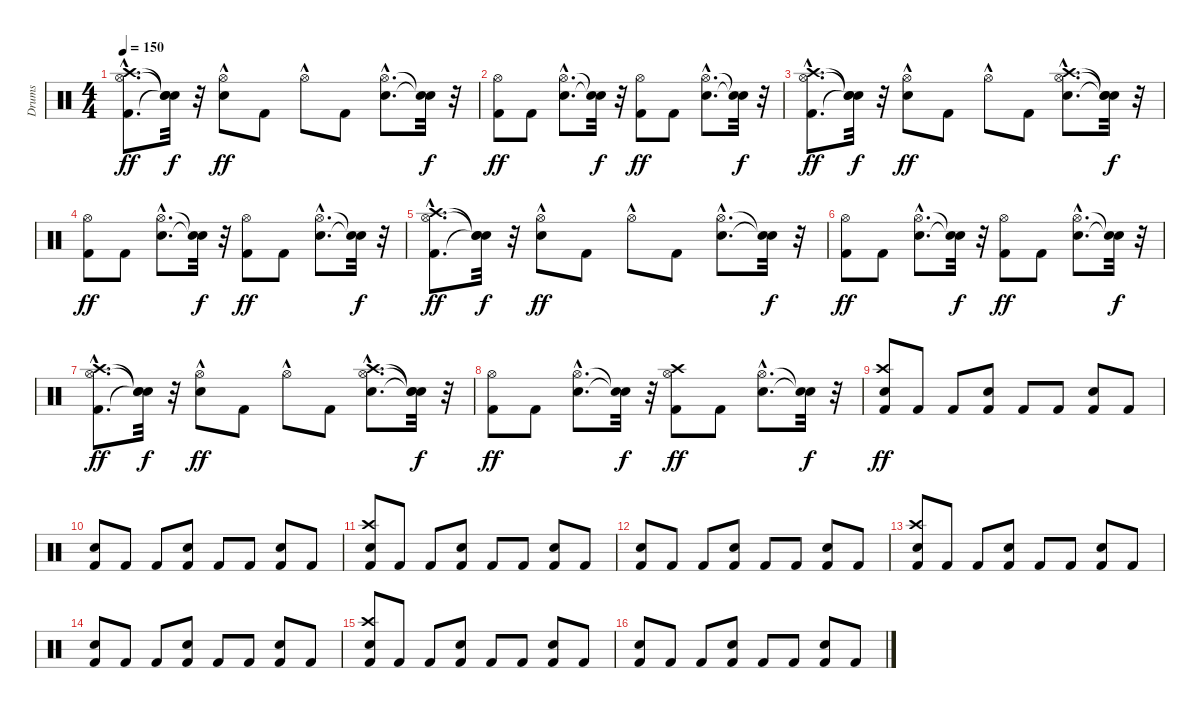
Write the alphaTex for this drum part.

\track ("Drums" "Drums") {instrument percussion}
\staff {score}
\articulation defaults
\ts (4 4)
\tempo 150
\clef neutral
\ks c
("Kick (hit) 2"{hac} "Hi-Hat (open)"{hac} "Crash high (hit)"{hac}).8{d dy ff} ("Snare (hit)"{t} "Snare (hit)"{t} "Snare (hit)"{t}).32{dy f} r.32 ("Snare (hit) 2"{hac} "Hi-Hat (open)"{hac}).8{dy ff} "Kick (hit) 2".8 "Hi-Hat (open)"{hac}.8 "Kick (hit) 2".8 ("Snare (hit) 2"{hac} "Hi-Hat (open)"{hac}).8{d} ("Snare (hit)"{t} "Snare (hit)"{t}).32{dy f} r.32 |
("Kick (hit) 2" "Hi-Hat (open)").8{dy ff} "Kick (hit) 2".8 ("Snare (hit) 2"{hac} "Hi-Hat (open)"{hac}).8{d} ("Snare (hit)"{t} "Snare (hit)"{t}).32{dy f} r.32 ("Kick (hit) 2" "Hi-Hat (open)").8{dy ff} "Kick (hit) 2".8 ("Snare (hit) 2"{hac} "Hi-Hat (open)"{hac}).8{d} ("Snare (hit)"{t} "Snare (hit)"{t}).32{dy f} r.32 |
("Kick (hit) 2"{hac} "Hi-Hat (open)"{hac} "Crash high (hit)"{hac}).8{d dy ff} ("Snare (hit)"{t} "Snare (hit)"{t} "Snare (hit)"{t}).32{dy f} r.32 ("Snare (hit) 2"{hac} "Hi-Hat (open)"{hac}).8{dy ff} "Kick (hit) 2".8 "Hi-Hat (open)"{hac}.8 "Kick (hit) 2".8 ("Snare (hit) 2"{hac} "Hi-Hat (open)"{hac} "Crash high (hit)"{hac}).8{d} ("Snare (hit)"{t} "Snare (hit)"{t} "Snare (hit)"{t}).32{dy f} r.32 |
("Kick (hit) 2" "Hi-Hat (open)").8{dy ff} "Kick (hit) 2".8 ("Snare (hit) 2"{hac} "Hi-Hat (open)"{hac}).8{d} ("Snare (hit)"{t} "Snare (hit)"{t}).32{dy f} r.32 ("Kick (hit) 2" "Hi-Hat (open)").8{dy ff} "Kick (hit) 2".8 ("Snare (hit) 2"{hac} "Hi-Hat (open)"{hac}).8{d} ("Snare (hit)"{t} "Snare (hit)"{t}).32{dy f} r.32 |
("Kick (hit) 2"{hac} "Hi-Hat (open)"{hac} "Crash high (hit)"{hac}).8{d dy ff} ("Snare (hit)"{t} "Snare (hit)"{t} "Snare (hit)"{t}).32{dy f} r.32 ("Snare (hit) 2"{hac} "Hi-Hat (open)"{hac}).8{dy ff} "Kick (hit) 2".8 "Hi-Hat (open)"{hac}.8 "Kick (hit) 2".8 ("Snare (hit) 2"{hac} "Hi-Hat (open)"{hac}).8{d} ("Snare (hit)"{t} "Snare (hit)"{t}).32{dy f} r.32 |
("Kick (hit) 2" "Hi-Hat (open)").8{dy ff} "Kick (hit) 2".8 ("Snare (hit) 2"{hac} "Hi-Hat (open)"{hac}).8{d} ("Snare (hit)"{t} "Snare (hit)"{t}).32{dy f} r.32 ("Kick (hit) 2" "Hi-Hat (open)").8{dy ff} "Kick (hit) 2".8 ("Snare (hit) 2"{hac} "Hi-Hat (open)"{hac}).8{d} ("Snare (hit)"{t} "Snare (hit)"{t}).32{dy f} r.32 |
("Kick (hit) 2"{hac} "Hi-Hat (open)"{hac} "Crash high (hit)"{hac}).8{d dy ff} ("Snare (hit)"{t} "Snare (hit)"{t} "Snare (hit)"{t}).32{dy f} r.32 ("Snare (hit) 2"{hac} "Hi-Hat (open)"{hac}).8{dy ff} "Kick (hit) 2".8 "Hi-Hat (open)"{hac}.8 "Kick (hit) 2".8 ("Snare (hit) 2"{hac} "Hi-Hat (open)"{hac} "Crash high (hit)"{hac}).8{d} ("Snare (hit)"{t} "Snare (hit)"{t} "Snare (hit)"{t}).32{dy f} r.32 |
("Kick (hit) 2" "Hi-Hat (open)").8{dy ff} "Kick (hit) 2".8 ("Snare (hit) 2"{hac} "Hi-Hat (open)"{hac}).8{d} ("Snare (hit)"{t} "Snare (hit)"{t}).32{dy f} r.32 ("Kick (hit) 2" "Hi-Hat (open)" "Crash high (hit)").8{dy ff} "Kick (hit) 2".8 ("Snare (hit) 2"{hac} "Hi-Hat (open)"{hac}).8{d} ("Snare (hit)"{t} "Snare (hit)"{t}).32{dy f} r.32 |
("Kick (hit) 2" "Snare (hit) 2" "Crash high (hit)").8{dy ff} "Kick (hit) 2".8 "Kick (hit) 2".8 ("Kick (hit) 2" "Snare (hit) 2").8 "Kick (hit) 2".8 "Kick (hit) 2".8 ("Kick (hit) 2" "Snare (hit) 2").8 "Kick (hit) 2".8 |
("Kick (hit) 2" "Snare (hit) 2").8 "Kick (hit) 2".8 "Kick (hit) 2".8 ("Kick (hit) 2" "Snare (hit) 2").8 "Kick (hit) 2".8 "Kick (hit) 2".8 ("Kick (hit) 2" "Snare (hit) 2").8 "Kick (hit) 2".8 |
("Kick (hit) 2" "Snare (hit) 2" "Crash high (hit)").8 "Kick (hit) 2".8 "Kick (hit) 2".8 ("Kick (hit) 2" "Snare (hit) 2").8 "Kick (hit) 2".8 "Kick (hit) 2".8 ("Kick (hit) 2" "Snare (hit) 2").8 "Kick (hit) 2".8 |
("Kick (hit) 2" "Snare (hit) 2").8 "Kick (hit) 2".8 "Kick (hit) 2".8 ("Kick (hit) 2" "Snare (hit) 2").8 "Kick (hit) 2".8 "Kick (hit) 2".8 ("Kick (hit) 2" "Snare (hit) 2").8 "Kick (hit) 2".8 |
("Kick (hit) 2" "Snare (hit) 2" "Crash high (hit)").8 "Kick (hit) 2".8 "Kick (hit) 2".8 ("Kick (hit) 2" "Snare (hit) 2").8 "Kick (hit) 2".8 "Kick (hit) 2".8 ("Kick (hit) 2" "Snare (hit) 2").8 "Kick (hit) 2".8 |
("Kick (hit) 2" "Snare (hit) 2").8 "Kick (hit) 2".8 "Kick (hit) 2".8 ("Kick (hit) 2" "Snare (hit) 2").8 "Kick (hit) 2".8 "Kick (hit) 2".8 ("Kick (hit) 2" "Snare (hit) 2").8 "Kick (hit) 2".8 |
("Kick (hit) 2" "Snare (hit) 2" "Crash high (hit)").8 "Kick (hit) 2".8 "Kick (hit) 2".8 ("Kick (hit) 2" "Snare (hit) 2").8 "Kick (hit) 2".8 "Kick (hit) 2".8 ("Kick (hit) 2" "Snare (hit) 2").8 "Kick (hit) 2".8 |
("Kick (hit) 2" "Snare (hit) 2").8 "Kick (hit) 2".8 "Kick (hit) 2".8 ("Kick (hit) 2" "Snare (hit) 2").8 "Kick (hit) 2".8 "Kick (hit) 2".8 ("Kick (hit) 2" "Snare (hit) 2").8 "Kick (hit) 2".8
